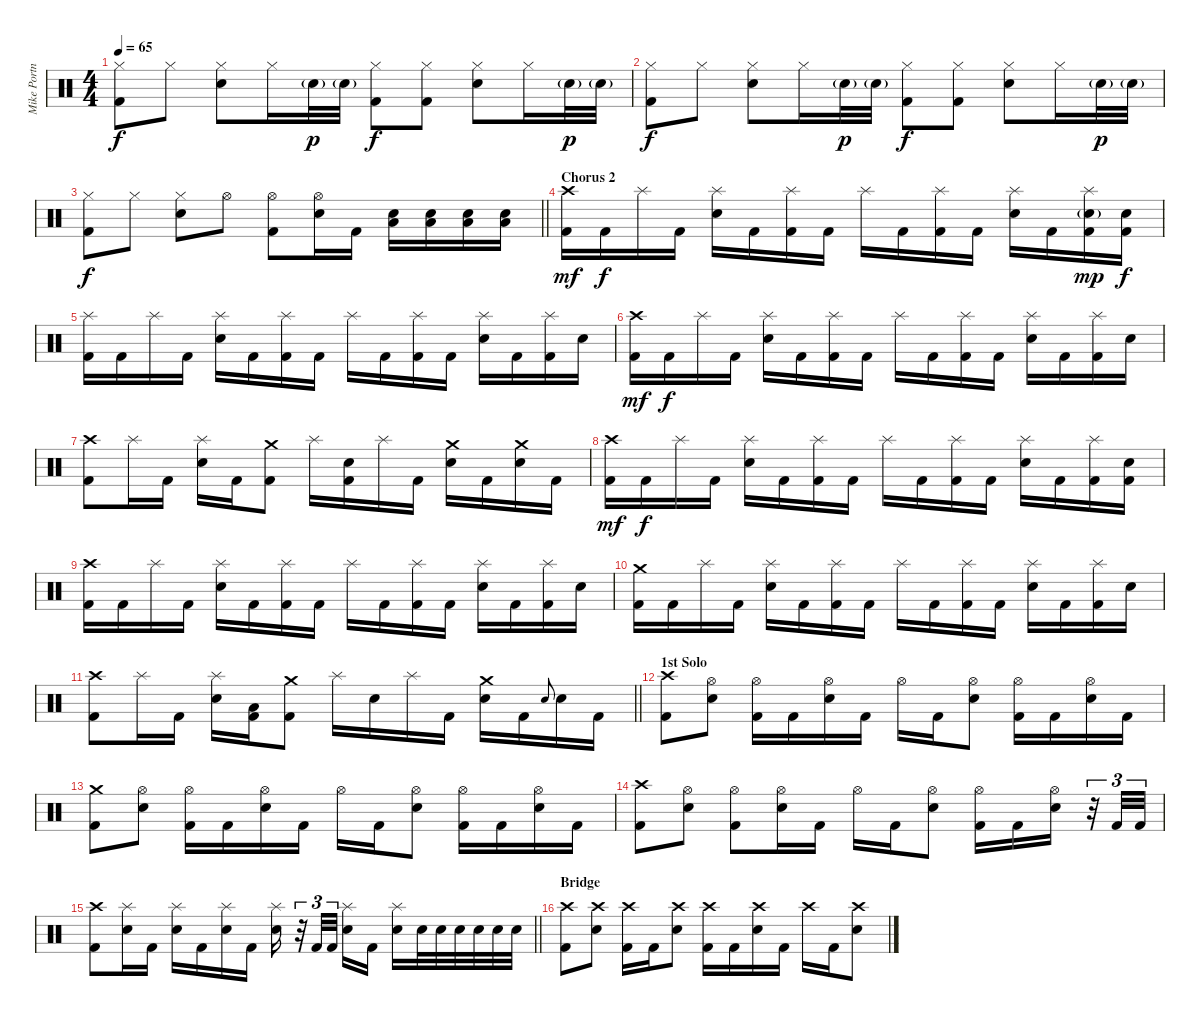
\track ("Mike Portnoy [Drums]" "Mike Portn") {instrument percussion}
\staff {score}
\articulation defaults
\ts (4 4)
\tempo 65
\clef neutral
\ks c
("Hi-Hat (closed)" "Kick (hit) 2").8{dy f} "Hi-Hat (closed)".8 ("Hi-Hat (closed)" "Electric Snare (hit)").8 "Hi-Hat (closed)".16 "Electric Snare (hit)"{g}.32{dy p} "Electric Snare (hit)"{g}.32 ("Hi-Hat (closed)" "Kick (hit) 2").8{dy f} ("Hi-Hat (closed)" "Kick (hit) 2").8 ("Hi-Hat (closed)" "Electric Snare (hit)").8 "Hi-Hat (closed)".16 "Electric Snare (hit)"{g}.32{dy p} "Electric Snare (hit)"{g}.32 |
("Hi-Hat (closed)" "Kick (hit) 2").8{dy f} "Hi-Hat (closed)".8 ("Hi-Hat (closed)" "Electric Snare (hit)").8 "Hi-Hat (closed)".16 "Electric Snare (hit)"{g}.32{dy p} "Electric Snare (hit)"{g}.32 ("Hi-Hat (closed)" "Kick (hit) 2").8{dy f} ("Hi-Hat (closed)" "Kick (hit) 2").8 ("Hi-Hat (closed)" "Electric Snare (hit)").8 "Hi-Hat (closed)".16 "Electric Snare (hit)"{g}.32{dy p} "Electric Snare (hit)"{g}.32 |
\barLineRight lightlight
("Hi-Hat (closed)" "Kick (hit) 2").8{dy f} "Hi-Hat (closed)".8 ("Hi-Hat (closed)" "Electric Snare (hit)").8 "Hi-Hat (open)".8 ("Hi-Hat (open)" "Kick (hit) 2").8 ("Hi-Hat (open)" "Electric Snare (hit)").16 "Kick (hit) 2".16 ("Low Floor Tom (hit)" "Electric Snare (hit)").16 ("Low Floor Tom (hit)" "Electric Snare (hit)").16 ("Low Floor Tom (hit)" "Electric Snare (hit)").16 ("Low Floor Tom (hit)" "Electric Snare (hit)").16 |
\section ("" "Chorus 2")
("Crash high (hit)" "Kick (hit) 2").16{dy mf} "Kick (hit) 2".16{dy f} "Splash (hit)".16 "Kick (hit) 2".16 ("Splash (hit)" "Electric Snare (hit)").16 "Kick (hit) 2".16 ("Splash (hit)" "Kick (hit) 2").16 "Kick (hit) 2".16 "Splash (hit)".16 "Kick (hit) 2".16 ("Splash (hit)" "Kick (hit) 2").16 "Kick (hit) 2".16 ("Splash (hit)" "Electric Snare (hit)").16 "Kick (hit) 2".16 ("Splash (hit)" "Electric Snare (hit)"{g} "Kick (hit) 2").16{dy mp} ("Electric Snare (hit)" "Kick (hit) 2").16{dy f} |
("Splash (hit)" "Kick (hit) 2").16 "Kick (hit) 2".16 "Splash (hit)".16 "Kick (hit) 2".16 ("Splash (hit)" "Electric Snare (hit)").16 "Kick (hit) 2".16 ("Splash (hit)" "Kick (hit) 2").16 "Kick (hit) 2".16 "Splash (hit)".16 "Kick (hit) 2".16 ("Splash (hit)" "Kick (hit) 2").16 "Kick (hit) 2".16 ("Splash (hit)" "Electric Snare (hit)").16 "Kick (hit) 2".16 ("Splash (hit)" "Kick (hit) 2").16 "Electric Snare (hit)".16 |
("Crash high (hit)" "Kick (hit) 2").16{dy mf} "Kick (hit) 2".16{dy f} "Splash (hit)".16 "Kick (hit) 2".16 ("Splash (hit)" "Electric Snare (hit)").16 "Kick (hit) 2".16 ("Splash (hit)" "Kick (hit) 2").16 "Kick (hit) 2".16 "Splash (hit)".16 "Kick (hit) 2".16 ("Splash (hit)" "Kick (hit) 2").16 "Kick (hit) 2".16 ("Splash (hit)" "Electric Snare (hit)").16 "Kick (hit) 2".16 ("Splash (hit)" "Kick (hit) 2").16 "Electric Snare (hit)".16 |
("Crash high (hit)" "Kick (hit) 2").8 "Splash (hit)".16 "Kick (hit) 2".16 ("Splash (hit)" "Electric Snare (hit)").16 "Kick (hit) 2".16 ("Crash medium (hit)" "Kick (hit) 2").8 "Splash (hit)".16 ("Electric Snare (hit)" "Kick (hit) 2").16 "Splash (hit)".16 "Kick (hit) 2".16 ("Crash medium (hit)" "Electric Snare (hit)").16 "Kick (hit) 2".16 ("Crash medium (hit)" "Electric Snare (hit)").16 "Kick (hit) 2".16 |
("Crash high (hit)" "Kick (hit) 2").16{dy mf} "Kick (hit) 2".16{dy f} "Splash (hit)".16 "Kick (hit) 2".16 ("Splash (hit)" "Electric Snare (hit)").16 "Kick (hit) 2".16 ("Splash (hit)" "Kick (hit) 2").16 "Kick (hit) 2".16 "Splash (hit)".16 "Kick (hit) 2".16 ("Splash (hit)" "Kick (hit) 2").16 "Kick (hit) 2".16 ("Splash (hit)" "Electric Snare (hit)").16 "Kick (hit) 2".16 ("Splash (hit)" "Kick (hit) 2").16 ("Electric Snare (hit)" "Kick (hit) 2").16 |
("Crash high (hit)" "Kick (hit) 2").16 "Kick (hit) 2".16 "Splash (hit)".16 "Kick (hit) 2".16 ("Splash (hit)" "Electric Snare (hit)").16 "Kick (hit) 2".16 ("Splash (hit)" "Kick (hit) 2").16 "Kick (hit) 2".16 "Splash (hit)".16 "Kick (hit) 2".16 ("Splash (hit)" "Kick (hit) 2").16 "Kick (hit) 2".16 ("Splash (hit)" "Electric Snare (hit)").16 "Kick (hit) 2".16 ("Splash (hit)" "Kick (hit) 2").16 "Electric Snare (hit)".16 |
("Crash medium (hit)" "Kick (hit) 2").16 "Kick (hit) 2".16 "Splash (hit)".16 "Kick (hit) 2".16 ("Splash (hit)" "Electric Snare (hit)").16 "Kick (hit) 2".16 ("Splash (hit)" "Kick (hit) 2").16 "Kick (hit) 2".16 "Splash (hit)".16 "Kick (hit) 2".16 ("Splash (hit)" "Kick (hit) 2").16 "Kick (hit) 2".16 ("Splash (hit)" "Electric Snare (hit)").16 "Kick (hit) 2".16 ("Splash (hit)" "Kick (hit) 2").16 "Electric Snare (hit)".16 |
\barLineRight lightlight
("Crash high (hit)" "Kick (hit) 2").8 "Splash (hit)".16 "Kick (hit) 2".16 ("Splash (hit)" "Electric Snare (hit)").16 ("Low Tom (hit)" "Kick (hit) 2").16 ("Crash medium (hit)" "Kick (hit) 2").8 "Splash (hit)".16 "Electric Snare (hit)".16 "Splash (hit)".16 "Kick (hit) 2".16 ("Crash medium (hit)" "Electric Snare (hit)").16 "Kick (hit) 2".16 "Electric Snare (hit)".8{gr onbeat} "Electric Snare (hit)".16 "Kick (hit) 2".16 |
\section ("" "1st Solo")
("Crash high (hit)" "Kick (hit) 2").8 ("Hi-Hat (open)" "Electric Snare (hit)").8 ("Hi-Hat (open)" "Kick (hit) 2").16 "Kick (hit) 2".16 ("Hi-Hat (open)" "Electric Snare (hit)").16 "Kick (hit) 2".16 "Hi-Hat (open)".16 "Kick (hit) 2".16 ("Hi-Hat (open)" "Electric Snare (hit)").8 ("Hi-Hat (open)" "Kick (hit) 2").16 "Kick (hit) 2".16 ("Hi-Hat (open)" "Electric Snare (hit)").16 "Kick (hit) 2".16 |
("Crash medium (hit)" "Kick (hit) 2").8 ("Hi-Hat (open)" "Electric Snare (hit)").8 ("Hi-Hat (open)" "Kick (hit) 2").16 "Kick (hit) 2".16 ("Hi-Hat (open)" "Electric Snare (hit)").16 "Kick (hit) 2".16 "Hi-Hat (open)".16 "Kick (hit) 2".16 ("Hi-Hat (open)" "Electric Snare (hit)").8 ("Hi-Hat (open)" "Kick (hit) 2").16 "Kick (hit) 2".16 ("Hi-Hat (open)" "Electric Snare (hit)").16 "Kick (hit) 2".16 |
("Crash high (hit)" "Kick (hit) 2").8 ("Hi-Hat (open)" "Electric Snare (hit)").8 ("Hi-Hat (open)" "Kick (hit) 2").8 ("Hi-Hat (open)" "Electric Snare (hit)").16 "Kick (hit) 2".16 "Hi-Hat (open)".16 "Kick (hit) 2".16 ("Hi-Hat (open)" "Electric Snare (hit)").8 ("Hi-Hat (open)" "Kick (hit) 2").16 "Kick (hit) 2".16 ("Hi-Hat (open)" "Electric Snare (hit)").16 r.32{tu (3 2)} "Kick (hit) 2".32{tu (3 2)} "Kick (hit) 2".32{tu (3 2)} |
\barLineRight lightlight
("Crash high (hit)" "Kick (hit) 2").8 ("Splash (hit)" "Electric Snare (hit)").16 "Kick (hit) 2".16 ("Splash (hit)" "Electric Snare (hit)").16 "Kick (hit) 2".16 ("Splash (hit)" "Electric Snare (hit)").16 "Kick (hit) 2".16 ("Splash (hit)" "Electric Snare (hit)").16 r.32{tu (3 2)} "Kick (hit) 2".32{tu (3 2)} "Kick (hit) 2".32{tu (3 2) beam splitsecondary} ("Splash (hit)" "Electric Snare (hit)").16 "Kick (hit) 2".16 ("Splash (hit)" "Electric Snare (hit)").16 "Electric Snare (hit)".32 "Electric Snare (hit)".32 "Electric Snare (hit)".32 "Electric Snare (hit)".32 "Electric Snare (hit)".32 "Electric Snare (hit)".32 |
\section ("" "Bridge")
("Crash high (hit)" "Kick (hit) 2").8 ("Crash high (hit)" "Electric Snare (hit)").8 ("Crash high (hit)" "Kick (hit) 2").16 "Kick (hit) 2".16 ("Crash high (hit)" "Electric Snare (hit)").8 ("Crash high (hit)" "Kick (hit) 2").16 "Kick (hit) 2".16 ("Crash high (hit)" "Electric Snare (hit)").16 "Kick (hit) 2".16 "Crash high (hit)".16 "Kick (hit) 2".16 ("Crash high (hit)" "Electric Snare (hit)").8
